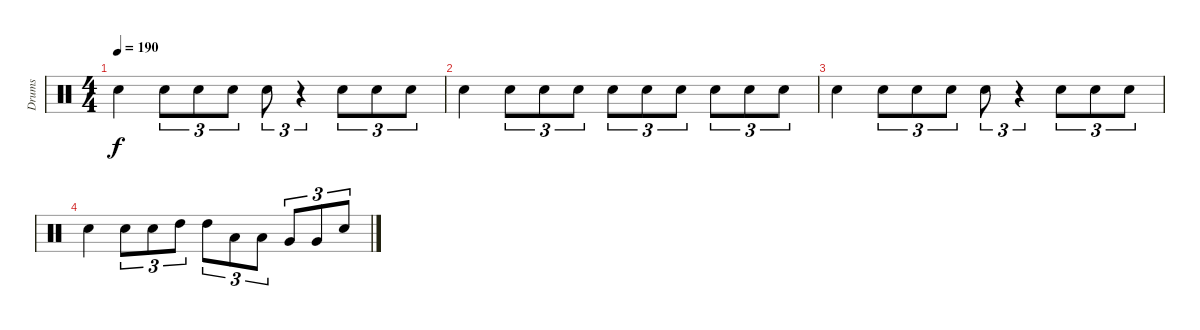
\track ("Drums" "Drums") {instrument percussion}
\staff {score}
\articulation defaults
\ts (4 4)
\tempo 190
\clef neutral
\ks c "Snare (hit) 2".4{dy f} "Snare (hit) 2".8{tu (3 2)} "Snare (hit) 2".8{tu (3 2)} "Snare (hit) 2".8{tu (3 2)} "Snare (hit) 2".8{tu (3 2)}
r.4{tu (3 2)} "Snare (hit) 2".8{tu (3 2)} "Snare (hit) 2".8{tu (3 2)} "Snare (hit) 2".8{tu (3 2)} |
"Snare (hit) 2".4 "Snare (hit) 2".8{tu (3 2)} "Snare (hit) 2".8{tu (3 2)} "Snare (hit) 2".8{tu (3 2)} "Snare (hit) 2".8{tu (3 2)} "Snare (hit) 2".8{tu (3 2)} "Snare (hit) 2".8{tu (3 2)} "Snare (hit) 2".8{tu (3 2)} "Snare (hit) 2".8{tu (3 2)} "Snare (hit) 2".8{tu (3 2)} |
"Snare (hit) 2".4 "Snare (hit) 2".8{tu (3 2)} "Snare (hit) 2".8{tu (3 2)} "Snare (hit) 2".8{tu (3 2)} "Snare (hit) 2".8{tu (3 2)} r.4{tu (3 2)} "Snare (hit) 2".8{tu (3 2)} "Snare (hit) 2".8{tu (3 2)} "Snare (hit) 2".8{tu (3 2)} |
"Snare (hit) 2".4 "Snare (hit) 2".8{tu (3 2)} "Snare (hit) 2".8{tu (3 2)} "High Tom (hit)".8{tu (3 2)} "High Tom (hit)".8{tu (3 2)} "Low Tom (hit)".8{tu (3 2)} "Low Tom (hit)".8{tu (3 2)} "Very Low Tom (hit)".8{tu (3 2)} "Very Low Tom (hit)".8{tu (3 2)} "Snare (hit) 2".8{tu (3 2)}
